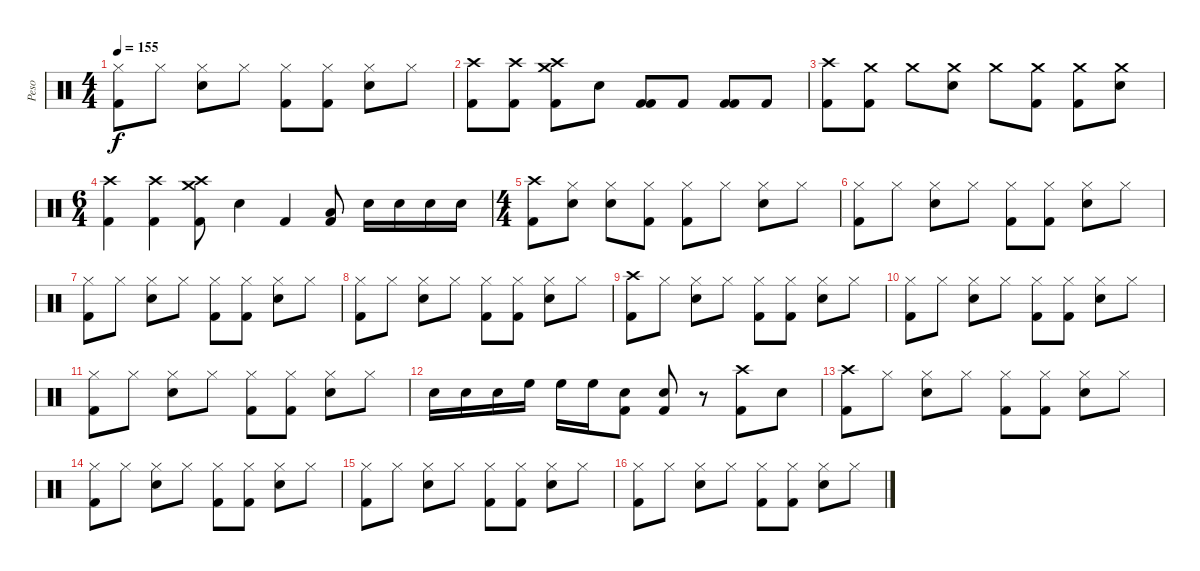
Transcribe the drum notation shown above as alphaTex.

\track ("Peso" "Peso") {instrument percussion}
\staff {score}
\articulation defaults
\ts (4 4)
\tempo 155
\clef neutral
\ks c
("Hi-Hat (closed)" "Kick (hit) 2").8{dy f} "Hi-Hat (closed)".8 ("Hi-Hat (closed)" "Snare (hit) 2").8 "Hi-Hat (closed)".8 ("Hi-Hat (closed)" "Kick (hit) 2").8 ("Hi-Hat (closed)" "Kick (hit) 2").8 ("Hi-Hat (closed)" "Snare (hit) 2").8 "Hi-Hat (closed)".8 |
("Crash high (hit)" "Kick (hit) 2").8 ("Crash high (hit)" "Kick (hit) 2").8 ("Crash high (hit)" "Crash medium (hit)" "Kick (hit) 2").8 "Snare (hit)"{x}.8 ("Kick (hit) 2" "Kick (hit) 2").8 "Kick (hit) 2"{x}.8 ("Kick (hit) 2" "Kick (hit) 2").8 "Kick (hit) 2"{x}.8 |
("Crash high (hit)" "Kick (hit) 2").8 ("Crash medium (hit)" "Kick (hit) 2").8 "Crash medium (hit)".8 ("Crash medium (hit)" "Snare (hit) 2").8 "Crash medium (hit)".8 ("Crash medium (hit)" "Kick (hit) 2").8 ("Crash medium (hit)" "Kick (hit) 2").8 ("Crash medium (hit)" "Snare (hit) 2").8 |
\ts (6 4)
("Crash high (hit)" "Kick (hit) 2").4 ("Crash high (hit)" "Kick (hit) 2").4 ("Crash high (hit)" "Crash medium (hit)" "Kick (hit) 2").8 "Snare (hit) 2"{x}.4 "Kick (hit) 2".4 ("Low Floor Tom (hit)" "Kick (hit) 2").8 "Snare (hit) 2".16 "Snare (hit) 2".16 "Snare (hit) 2".16 "Snare (hit) 2".16 |
\ts (4 4)
("Crash high (hit)" "Kick (hit) 2").8 ("Hi-Hat (closed)" "Snare (hit) 2").8 ("Hi-Hat (closed)" "Snare (hit) 2").8 ("Hi-Hat (closed)" "Kick (hit) 2").8 ("Hi-Hat (closed)" "Kick (hit) 2").8 "Hi-Hat (closed)".8 ("Hi-Hat (closed)" "Snare (hit) 2").8 "Hi-Hat (closed)".8 |
("Hi-Hat (closed)" "Kick (hit) 2").8 "Hi-Hat (closed)".8 ("Hi-Hat (closed)" "Snare (hit) 2").8 "Hi-Hat (closed)".8 ("Hi-Hat (closed)" "Kick (hit) 2").8 ("Hi-Hat (closed)" "Kick (hit) 2").8 ("Hi-Hat (closed)" "Snare (hit) 2").8 "Hi-Hat (closed)".8 |
("Hi-Hat (closed)" "Kick (hit) 2").8 "Hi-Hat (closed)".8 ("Hi-Hat (closed)" "Snare (hit) 2").8 "Hi-Hat (closed)".8 ("Hi-Hat (closed)" "Kick (hit) 2").8 ("Hi-Hat (closed)" "Kick (hit) 2").8 ("Hi-Hat (closed)" "Snare (hit) 2").8 "Hi-Hat (closed)".8 |
("Hi-Hat (closed)" "Kick (hit) 2").8 "Hi-Hat (closed)".8 ("Hi-Hat (closed)" "Snare (hit) 2").8 "Hi-Hat (closed)".8 ("Hi-Hat (closed)" "Kick (hit) 2").8 ("Hi-Hat (closed)" "Kick (hit) 2").8 ("Hi-Hat (closed)" "Snare (hit) 2").8 "Hi-Hat (closed)".8 |
("Crash high (hit)" "Kick (hit) 2").8 "Hi-Hat (closed)".8 ("Hi-Hat (closed)" "Snare (hit) 2").8 "Hi-Hat (closed)".8 ("Hi-Hat (closed)" "Kick (hit) 2").8 ("Hi-Hat (closed)" "Kick (hit) 2").8 ("Hi-Hat (closed)" "Snare (hit) 2").8 "Hi-Hat (closed)".8 |
("Hi-Hat (closed)" "Kick (hit) 2").8 "Hi-Hat (closed)".8 ("Hi-Hat (closed)" "Snare (hit) 2").8 "Hi-Hat (closed)".8 ("Hi-Hat (closed)" "Kick (hit) 2").8 ("Hi-Hat (closed)" "Kick (hit) 2").8 ("Hi-Hat (closed)" "Snare (hit) 2").8 "Hi-Hat (closed)".8 |
("Hi-Hat (closed)" "Kick (hit) 2").8 "Hi-Hat (closed)".8 ("Hi-Hat (closed)" "Snare (hit) 2").8 "Hi-Hat (closed)".8 ("Hi-Hat (closed)" "Kick (hit) 2").8 ("Hi-Hat (closed)" "Kick (hit) 2").8 ("Hi-Hat (closed)" "Snare (hit) 2").8 "Hi-Hat (closed)".8 |
"Snare (hit) 2".16 "Snare (hit) 2".16 "Snare (hit) 2".16 "High Floor Tom (hit)".16 "High Floor Tom (hit)".16 "High Floor Tom (hit)".16 ("Snare (hit) 2" "Kick (hit) 2").8 ("Snare (hit) 2" "Kick (hit) 2").8 r.8 ("Crash high (hit)" "Kick (hit) 2").8 "Snare (hit)"{x}.8 |
("Crash high (hit)" "Kick (hit) 2").8 "Hi-Hat (closed)".8 ("Hi-Hat (closed)" "Snare (hit) 2").8 "Hi-Hat (closed)".8 ("Hi-Hat (closed)" "Kick (hit) 2").8 ("Hi-Hat (closed)" "Kick (hit) 2").8 ("Hi-Hat (closed)" "Snare (hit) 2").8 "Hi-Hat (closed)".8 |
("Hi-Hat (closed)" "Kick (hit) 2").8 "Hi-Hat (closed)".8 ("Hi-Hat (closed)" "Snare (hit) 2").8 "Hi-Hat (closed)".8 ("Hi-Hat (closed)" "Kick (hit) 2").8 ("Hi-Hat (closed)" "Kick (hit) 2").8 ("Hi-Hat (closed)" "Snare (hit) 2").8 "Hi-Hat (closed)".8 |
("Hi-Hat (closed)" "Kick (hit) 2").8 "Hi-Hat (closed)".8 ("Hi-Hat (closed)" "Snare (hit) 2").8 "Hi-Hat (closed)".8 ("Hi-Hat (closed)" "Kick (hit) 2").8 ("Hi-Hat (closed)" "Kick (hit) 2").8 ("Hi-Hat (closed)" "Snare (hit) 2").8 "Hi-Hat (closed)".8 |
("Hi-Hat (closed)" "Kick (hit) 2").8 "Hi-Hat (closed)".8 ("Hi-Hat (closed)" "Snare (hit) 2").8 "Hi-Hat (closed)".8 ("Hi-Hat (closed)" "Kick (hit) 2").8 ("Hi-Hat (closed)"{x} "Kick (hit) 2").8 ("Hi-Hat (closed)" "Snare (hit) 2").8 "Hi-Hat (closed)".8
